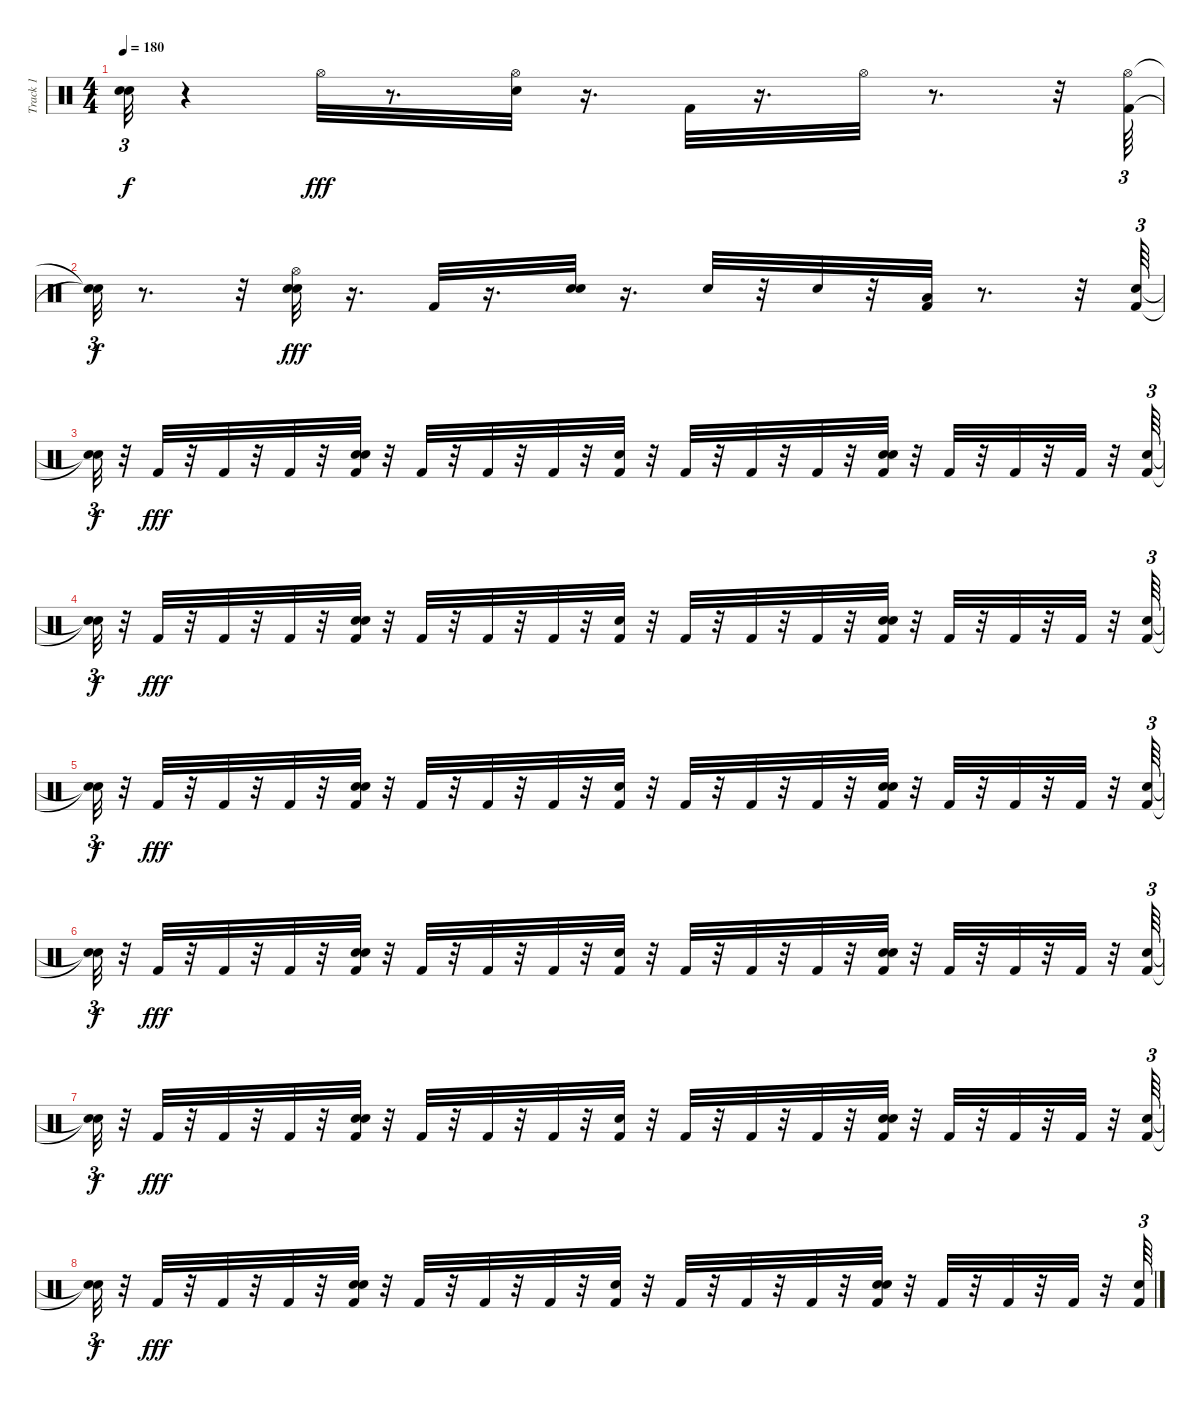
\track ("Track 1" "Track 1") {mute instrument percussion}
\staff {score}
\articulation defaults
\ts (4 4)
\tempo 180
\clef neutral
\ks c
("Snare (hit)"{t} "Snare (hit)"{t}).32{tu (3 2) dy f} r.4 "Hi-Hat (open)".32{dy fff} r.8{d} ("Hi-Hat (open)" "Electric Snare (hit)").32 r.16{d} "Kick (hit) 2".32 r.16{d} "Hi-Hat (open)".32 r.8{d} r.32 ("Kick (hit) 2" "Hi-Hat (open)").64{tu (3 2)} |
("Snare (hit)"{t} "Snare (hit)"{t}).32{tu (3 2) dy f} r.8{d} r.32 ("Electric Snare (hit)" "Hi-Hat (open)" "Snare (hit) 2").32{dy fff} r.16{d} "Kick (hit) 2".32 r.16{d} ("Electric Snare (hit)" "Snare (hit) 2").32 r.16{d} "Snare (hit) 2".32 r.32 "Snare (hit) 2".32 r.32 ("Kick (hit) 2" "Low Tom (hit)").32 r.8{d} r.32 ("Kick (hit) 2" "Snare (hit)").64{tu (3 2)} |
("Snare (hit)"{t} "Snare (hit)"{t}).32{tu (3 2) dy f} r.32 "Kick (hit) 2".32{dy fff} r.32 "Kick (hit) 2".32 r.32 "Kick (hit) 2".32 r.32 ("Snare (hit)" "Kick (hit) 2" "Snare (hit) 2").32 r.32 "Kick (hit) 2".32 r.32 "Kick (hit) 2".32 r.32 "Kick (hit) 2".32 r.32 ("Kick (hit) 2" "Snare (hit)").32 r.32 "Kick (hit) 2".32 r.32 "Kick (hit) 2".32 r.32 "Kick (hit) 2".32 r.32 ("Snare (hit)" "Kick (hit) 2" "Snare (hit) 2").32 r.32 "Kick (hit) 2".32 r.32 "Kick (hit) 2".32 r.32 "Kick (hit) 2".32 r.32 ("Kick (hit) 2" "Snare (hit)").64{tu (3 2)} |
("Snare (hit)"{t} "Snare (hit)"{t}).32{tu (3 2) dy f} r.32 "Kick (hit) 2".32{dy fff} r.32 "Kick (hit) 2".32 r.32 "Kick (hit) 2".32 r.32 ("Snare (hit)" "Kick (hit) 2" "Snare (hit) 2").32 r.32 "Kick (hit) 2".32 r.32 "Kick (hit) 2".32 r.32 "Kick (hit) 2".32 r.32 ("Kick (hit) 2" "Snare (hit)").32 r.32 "Kick (hit) 2".32 r.32 "Kick (hit) 2".32 r.32 "Kick (hit) 2".32 r.32 ("Snare (hit) 2" "Snare (hit)" "Kick (hit) 2").32 r.32 "Kick (hit) 2".32 r.32 "Kick (hit) 2".32 r.32 "Kick (hit) 2".32 r.32 ("Kick (hit) 2" "Snare (hit)").64{tu (3 2)} |
("Snare (hit)"{t} "Snare (hit)"{t}).32{tu (3 2) dy f} r.32 "Kick (hit) 2".32{dy fff} r.32 "Kick (hit) 2".32 r.32 "Kick (hit) 2".32 r.32 ("Snare (hit)" "Snare (hit) 2" "Kick (hit) 2").32 r.32 "Kick (hit) 2".32 r.32 "Kick (hit) 2".32 r.32 "Kick (hit) 2".32 r.32 ("Kick (hit) 2" "Snare (hit)").32 r.32 "Kick (hit) 2".32 r.32 "Kick (hit) 2".32 r.32 "Kick (hit) 2".32 r.32 ("Snare (hit) 2" "Snare (hit)" "Kick (hit) 2").32 r.32 "Kick (hit) 2".32 r.32 "Kick (hit) 2".32 r.32 "Kick (hit) 2".32 r.32 ("Kick (hit) 2" "Snare (hit)").64{tu (3 2)} |
("Snare (hit)"{t} "Snare (hit)"{t}).32{tu (3 2) dy f} r.32 "Kick (hit) 2".32{dy fff} r.32 "Kick (hit) 2".32 r.32 "Kick (hit) 2".32 r.32 ("Snare (hit)" "Kick (hit) 2" "Snare (hit) 2").32 r.32 "Kick (hit) 2".32 r.32 "Kick (hit) 2".32 r.32 "Kick (hit) 2".32 r.32 ("Kick (hit) 2" "Snare (hit)").32 r.32 "Kick (hit) 2".32 r.32 "Kick (hit) 2".32 r.32 "Kick (hit) 2".32 r.32 ("Snare (hit)" "Snare (hit) 2" "Kick (hit) 2").32 r.32 "Kick (hit) 2".32 r.32 "Kick (hit) 2".32 r.32 "Kick (hit) 2".32 r.32 ("Kick (hit) 2" "Snare (hit)").64{tu (3 2)} |
("Snare (hit)"{t} "Snare (hit)"{t}).32{tu (3 2) dy f} r.32 "Kick (hit) 2".32{dy fff} r.32 "Kick (hit) 2".32 r.32 "Kick (hit) 2".32 r.32 ("Snare (hit)" "Kick (hit) 2" "Snare (hit) 2").32 r.32 "Kick (hit) 2".32 r.32 "Kick (hit) 2".32 r.32 "Kick (hit) 2".32 r.32 ("Kick (hit) 2" "Snare (hit)").32 r.32 "Kick (hit) 2".32 r.32 "Kick (hit) 2".32 r.32 "Kick (hit) 2".32 r.32 ("Snare (hit)" "Kick (hit) 2" "Snare (hit) 2").32 r.32 "Kick (hit) 2".32 r.32 "Kick (hit) 2".32 r.32 "Kick (hit) 2".32 r.32 ("Kick (hit) 2" "Snare (hit)").64{tu (3 2)} |
("Snare (hit)"{t} "Snare (hit)"{t}).32{tu (3 2) dy f} r.32 "Kick (hit) 2".32{dy fff} r.32 "Kick (hit) 2".32 r.32 "Kick (hit) 2".32 r.32 ("Snare (hit)" "Kick (hit) 2" "Snare (hit) 2").32 r.32 "Kick (hit) 2".32 r.32 "Kick (hit) 2".32 r.32 "Kick (hit) 2".32 r.32 ("Kick (hit) 2" "Snare (hit)").32 r.32 "Kick (hit) 2".32 r.32 "Kick (hit) 2".32 r.32 "Kick (hit) 2".32 r.32 ("Snare (hit) 2" "Snare (hit)" "Kick (hit) 2").32 r.32 "Kick (hit) 2".32 r.32 "Kick (hit) 2".32 r.32 "Kick (hit) 2".32 r.32 ("Kick (hit) 2" "Snare (hit)").64{tu (3 2)}
